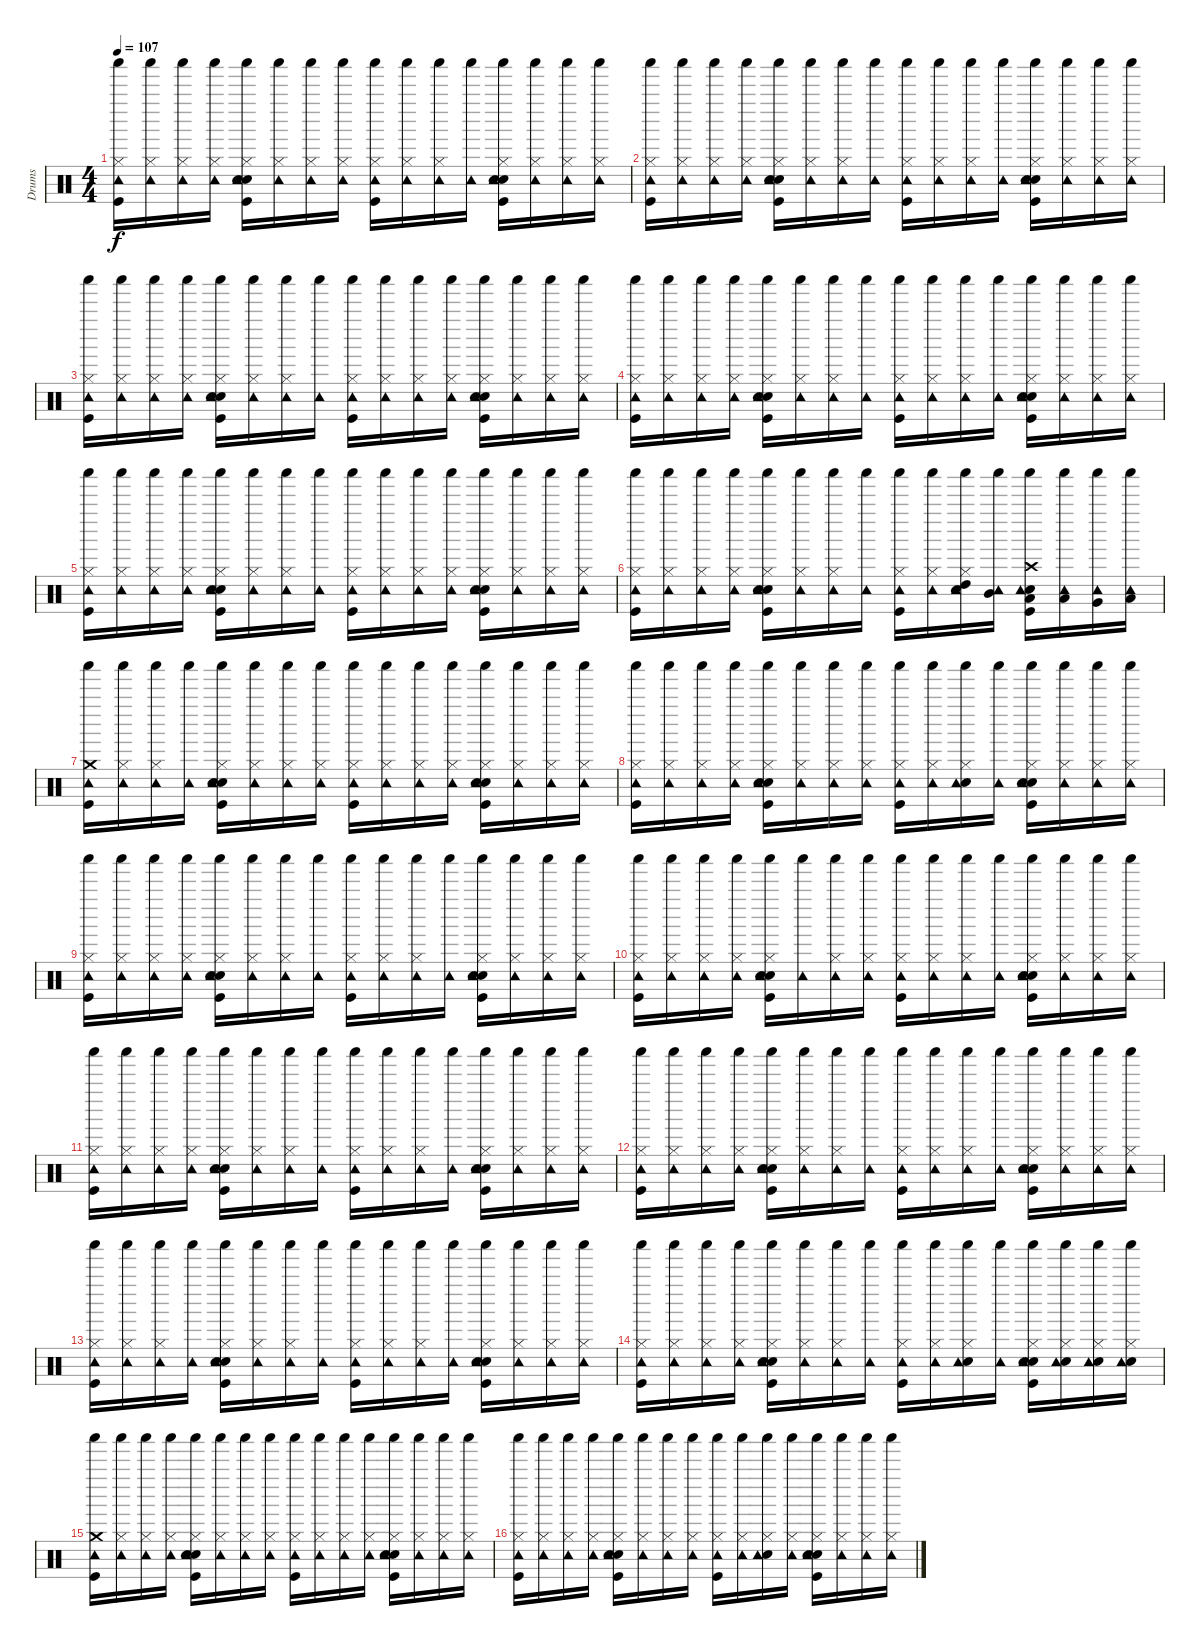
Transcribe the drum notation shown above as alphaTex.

\track ("Drums" "Drums") {instrument percussion}
\staff {score}
\articulation defaults
\ts (4 4)
\tempo 107
\clef neutral
\ks c
("Kick (hit)" "Hi-Hat (closed)" "Tambourine (hit)" "Shaker (hit)").16{dy f} ("Hi-Hat (closed)" "Tambourine (hit)" "Shaker (hit)").16 ("Hi-Hat (closed)" "Tambourine (hit)" "Shaker (hit)").16 ("Hi-Hat (closed)" "Tambourine (hit)" "Shaker (hit)").16 ("Kick (hit)" "Snare (hit) 2" "Hand Clap (hit)" "Hi-Hat (closed)" "Tambourine (hit)" "Shaker (hit)").16 ("Hi-Hat (closed)" "Tambourine (hit)" "Shaker (hit)").16 ("Hi-Hat (closed)" "Tambourine (hit)" "Shaker (hit)").16 ("Hi-Hat (closed)" "Tambourine (hit)" "Shaker (hit)").16 ("Kick (hit)" "Hi-Hat (closed)" "Tambourine (hit)" "Shaker (hit)").16 ("Hi-Hat (closed)" "Tambourine (hit)" "Shaker (hit)").16 ("Hi-Hat (closed)" "Tambourine (hit)" "Shaker (hit)").16 ("Tambourine (hit)" "Shaker (hit)").16 ("Kick (hit)" "Snare (hit) 2" "Hand Clap (hit)" "Hi-Hat (closed)" "Tambourine (hit)" "Shaker (hit)").16 ("Hi-Hat (closed)" "Tambourine (hit)" "Shaker (hit)").16 ("Hi-Hat (closed)" "Tambourine (hit)" "Shaker (hit)").16 ("Hi-Hat (closed)" "Tambourine (hit)" "Shaker (hit)").16 |
("Kick (hit)" "Hi-Hat (closed)" "Tambourine (hit)" "Shaker (hit)").16 ("Hi-Hat (closed)" "Tambourine (hit)" "Shaker (hit)").16 ("Hi-Hat (closed)" "Tambourine (hit)" "Shaker (hit)").16 ("Hi-Hat (closed)" "Tambourine (hit)" "Shaker (hit)").16 ("Kick (hit)" "Snare (hit) 2" "Hand Clap (hit)" "Hi-Hat (closed)" "Tambourine (hit)" "Shaker (hit)").16 ("Hi-Hat (closed)" "Tambourine (hit)" "Shaker (hit)").16 ("Hi-Hat (closed)" "Tambourine (hit)" "Shaker (hit)").16 ("Tambourine (hit)" "Shaker (hit)").16 ("Kick (hit)" "Hi-Hat (closed)" "Tambourine (hit)" "Shaker (hit)").16 ("Hi-Hat (closed)" "Tambourine (hit)" "Shaker (hit)").16 ("Hi-Hat (closed)" "Tambourine (hit)" "Shaker (hit)").16 ("Tambourine (hit)" "Shaker (hit)").16 ("Kick (hit)" "Snare (hit) 2" "Hand Clap (hit)" "Hi-Hat (closed)" "Tambourine (hit)" "Shaker (hit)").16 ("Hi-Hat (closed)" "Tambourine (hit)" "Shaker (hit)").16 ("Hi-Hat (closed)" "Tambourine (hit)" "Shaker (hit)").16 ("Hi-Hat (closed)" "Tambourine (hit)" "Shaker (hit)").16 |
("Kick (hit)" "Hi-Hat (closed)" "Tambourine (hit)" "Shaker (hit)").16 ("Hi-Hat (closed)" "Tambourine (hit)" "Shaker (hit)").16 ("Hi-Hat (closed)" "Tambourine (hit)" "Shaker (hit)").16 ("Hi-Hat (closed)" "Tambourine (hit)" "Shaker (hit)").16 ("Kick (hit)" "Snare (hit) 2" "Hand Clap (hit)" "Hi-Hat (closed)" "Tambourine (hit)" "Shaker (hit)").16 ("Hi-Hat (closed)" "Tambourine (hit)" "Shaker (hit)").16 ("Hi-Hat (closed)" "Tambourine (hit)" "Shaker (hit)").16 ("Tambourine (hit)" "Shaker (hit)").16 ("Kick (hit)" "Hi-Hat (closed)" "Tambourine (hit)" "Shaker (hit)").16 ("Hi-Hat (closed)" "Tambourine (hit)" "Shaker (hit)").16 ("Hi-Hat (closed)" "Tambourine (hit)" "Shaker (hit)").16 ("Hi-Hat (closed)" "Tambourine (hit)" "Shaker (hit)").16 ("Kick (hit)" "Snare (hit) 2" "Hand Clap (hit)" "Hi-Hat (closed)" "Tambourine (hit)" "Shaker (hit)").16 ("Hi-Hat (closed)" "Tambourine (hit)" "Shaker (hit)").16 ("Hi-Hat (closed)" "Tambourine (hit)" "Shaker (hit)").16 ("Hi-Hat (closed)" "Tambourine (hit)" "Shaker (hit)").16 |
("Kick (hit)" "Hi-Hat (closed)" "Tambourine (hit)" "Shaker (hit)").16 ("Hi-Hat (closed)" "Tambourine (hit)" "Shaker (hit)").16 ("Hi-Hat (closed)" "Tambourine (hit)" "Shaker (hit)").16 ("Hi-Hat (closed)" "Tambourine (hit)" "Shaker (hit)").16 ("Kick (hit)" "Snare (hit) 2" "Hand Clap (hit)" "Hi-Hat (closed)" "Tambourine (hit)" "Shaker (hit)").16 ("Hi-Hat (closed)" "Tambourine (hit)" "Shaker (hit)").16 ("Hi-Hat (closed)" "Tambourine (hit)" "Shaker (hit)").16 ("Tambourine (hit)" "Shaker (hit)").16 ("Kick (hit)" "Hi-Hat (closed)" "Tambourine (hit)" "Shaker (hit)").16 ("Hi-Hat (closed)" "Tambourine (hit)" "Shaker (hit)").16 ("Hi-Hat (closed)" "Tambourine (hit)" "Shaker (hit)").16 ("Tambourine (hit)" "Shaker (hit)").16 ("Kick (hit)" "Snare (hit) 2" "Hand Clap (hit)" "Hi-Hat (closed)" "Tambourine (hit)" "Shaker (hit)").16 ("Hi-Hat (closed)" "Tambourine (hit)" "Shaker (hit)").16 ("Hi-Hat (closed)" "Tambourine (hit)" "Shaker (hit)").16 ("Hi-Hat (closed)" "Tambourine (hit)" "Shaker (hit)").16 |
("Kick (hit)" "Hi-Hat (closed)" "Tambourine (hit)" "Shaker (hit)").16 ("Hi-Hat (closed)" "Tambourine (hit)" "Shaker (hit)").16 ("Hi-Hat (closed)" "Tambourine (hit)" "Shaker (hit)").16 ("Hi-Hat (closed)" "Tambourine (hit)" "Shaker (hit)").16 ("Kick (hit)" "Snare (hit) 2" "Hand Clap (hit)" "Hi-Hat (closed)" "Tambourine (hit)" "Shaker (hit)").16 ("Hi-Hat (closed)" "Tambourine (hit)" "Shaker (hit)").16 ("Hi-Hat (closed)" "Tambourine (hit)" "Shaker (hit)").16 ("Tambourine (hit)" "Shaker (hit)").16 ("Kick (hit)" "Hi-Hat (closed)" "Tambourine (hit)" "Shaker (hit)").16 ("Hi-Hat (closed)" "Tambourine (hit)" "Shaker (hit)").16 ("Hi-Hat (closed)" "Tambourine (hit)" "Shaker (hit)").16 ("Hi-Hat (closed)" "Tambourine (hit)" "Shaker (hit)").16 ("Kick (hit)" "Snare (hit) 2" "Hand Clap (hit)" "Hi-Hat (closed)" "Tambourine (hit)" "Shaker (hit)").16 ("Hi-Hat (closed)" "Tambourine (hit)" "Shaker (hit)").16 ("Hi-Hat (closed)" "Tambourine (hit)" "Shaker (hit)").16 ("Hi-Hat (closed)" "Tambourine (hit)" "Shaker (hit)").16 |
("Kick (hit)" "Hi-Hat (closed)" "Tambourine (hit)" "Shaker (hit)").16 ("Hi-Hat (closed)" "Tambourine (hit)" "Shaker (hit)").16 ("Hi-Hat (closed)" "Tambourine (hit)" "Shaker (hit)").16 ("Hi-Hat (closed)" "Tambourine (hit)" "Shaker (hit)").16 ("Kick (hit)" "Snare (hit) 2" "Hand Clap (hit)" "Hi-Hat (closed)" "Tambourine (hit)" "Shaker (hit)").16 ("Hi-Hat (closed)" "Tambourine (hit)" "Shaker (hit)").16 ("Hi-Hat (closed)" "Tambourine (hit)" "Shaker (hit)").16 ("Tambourine (hit)" "Shaker (hit)").16 ("Kick (hit)" "Hi-Hat (closed)" "Tambourine (hit)" "Shaker (hit)").16 ("Hi-Hat (closed)" "Tambourine (hit)" "Shaker (hit)").16 ("Hand Clap (hit)" "Hi-Hat (closed)" "High Tom (hit)" "Tambourine (hit)" "Shaker (hit)").16 ("Mid Tom (hit)" "Tambourine (hit)" "Shaker (hit)").16 ("Kick (hit)" "Hand Clap (hit)" "Low Tom (hit)" "Crash high (hit)" "Tambourine (hit)" "Shaker (hit)").16 ("Low Tom (hit)" "Tambourine (hit)" "Shaker (hit)").16 ("Very Low Tom (hit)" "Tambourine (hit)" "Shaker (hit)").16 ("Low Floor Tom (hit)" "Tambourine (hit)" "Shaker (hit)").16 |
("Kick (hit)" "Tambourine (hit)" "Crash medium (hit)" "Shaker (hit)").16 ("Hi-Hat (closed)" "Tambourine (hit)" "Shaker (hit)").16 ("Hi-Hat (closed)" "Tambourine (hit)" "Shaker (hit)").16 ("Tambourine (hit)" "Shaker (hit)").16 ("Kick (hit)" "Snare (hit) 2" "Hand Clap (hit)" "Hi-Hat (closed)" "Tambourine (hit)" "Shaker (hit)").16 ("Hi-Hat (closed)" "Tambourine (hit)" "Shaker (hit)").16 ("Hi-Hat (closed)" "Tambourine (hit)" "Shaker (hit)").16 ("Hi-Hat (closed)" "Tambourine (hit)" "Shaker (hit)").16 ("Kick (hit)" "Hi-Hat (closed)" "Tambourine (hit)" "Shaker (hit)").16 ("Hi-Hat (closed)" "Tambourine (hit)" "Shaker (hit)").16 ("Hi-Hat (closed)" "Tambourine (hit)" "Shaker (hit)").16 ("Hi-Hat (closed)" "Tambourine (hit)" "Shaker (hit)").16 ("Kick (hit)" "Snare (hit) 2" "Hand Clap (hit)" "Hi-Hat (closed)" "Tambourine (hit)" "Shaker (hit)").16 ("Hi-Hat (closed)" "Tambourine (hit)" "Shaker (hit)").16 ("Hi-Hat (closed)" "Tambourine (hit)" "Shaker (hit)").16 ("Hi-Hat (closed)" "Tambourine (hit)" "Shaker (hit)").16 |
("Kick (hit)" "Hi-Hat (closed)" "Tambourine (hit)" "Shaker (hit)").16 ("Hi-Hat (closed)" "Tambourine (hit)" "Shaker (hit)").16 ("Hi-Hat (closed)" "Tambourine (hit)" "Shaker (hit)").16 ("Hi-Hat (closed)" "Tambourine (hit)" "Shaker (hit)").16 ("Kick (hit)" "Snare (hit) 2" "Hand Clap (hit)" "Hi-Hat (closed)" "Tambourine (hit)" "Shaker (hit)").16 ("Hi-Hat (closed)" "Tambourine (hit)" "Shaker (hit)").16 ("Hi-Hat (closed)" "Tambourine (hit)" "Shaker (hit)").16 ("Hi-Hat (closed)" "Tambourine (hit)" "Shaker (hit)").16 ("Kick (hit)" "Hi-Hat (closed)" "Tambourine (hit)" "Shaker (hit)").16 ("Hi-Hat (closed)" "Tambourine (hit)" "Shaker (hit)").16 ("Hand Clap (hit)" "Hi-Hat (closed)" "Tambourine (hit)" "Shaker (hit)").16 ("Tambourine (hit)" "Shaker (hit)").16 ("Kick (hit)" "Snare (hit) 2" "Hand Clap (hit)" "Hi-Hat (closed)" "Tambourine (hit)" "Shaker (hit)").16 ("Hi-Hat (closed)" "Tambourine (hit)" "Shaker (hit)").16 ("Hi-Hat (closed)" "Tambourine (hit)" "Shaker (hit)").16 ("Hi-Hat (closed)" "Tambourine (hit)" "Shaker (hit)").16 |
("Kick (hit)" "Hi-Hat (closed)" "Tambourine (hit)" "Shaker (hit)").16 ("Hi-Hat (closed)" "Tambourine (hit)" "Shaker (hit)").16 ("Hi-Hat (closed)" "Tambourine (hit)" "Shaker (hit)").16 ("Hi-Hat (closed)" "Tambourine (hit)" "Shaker (hit)").16 ("Kick (hit)" "Snare (hit) 2" "Hand Clap (hit)" "Hi-Hat (closed)" "Tambourine (hit)" "Shaker (hit)").16 ("Hi-Hat (closed)" "Tambourine (hit)" "Shaker (hit)").16 ("Hi-Hat (closed)" "Tambourine (hit)" "Shaker (hit)").16 ("Tambourine (hit)" "Shaker (hit)").16 ("Kick (hit)" "Hi-Hat (closed)" "Tambourine (hit)" "Shaker (hit)").16 ("Hi-Hat (closed)" "Tambourine (hit)" "Shaker (hit)").16 ("Hi-Hat (closed)" "Tambourine (hit)" "Shaker (hit)").16 ("Tambourine (hit)" "Shaker (hit)").16 ("Kick (hit)" "Snare (hit) 2" "Hand Clap (hit)" "Hi-Hat (closed)" "Tambourine (hit)" "Shaker (hit)").16 ("Hi-Hat (closed)" "Tambourine (hit)" "Shaker (hit)").16 ("Hi-Hat (closed)" "Tambourine (hit)" "Shaker (hit)").16 ("Hi-Hat (closed)" "Tambourine (hit)" "Shaker (hit)").16 |
("Kick (hit)" "Hi-Hat (closed)" "Tambourine (hit)" "Shaker (hit)").16 ("Hi-Hat (closed)" "Tambourine (hit)" "Shaker (hit)").16 ("Hi-Hat (closed)" "Tambourine (hit)" "Shaker (hit)").16 ("Hi-Hat (closed)" "Tambourine (hit)" "Shaker (hit)").16 ("Kick (hit)" "Snare (hit) 2" "Hand Clap (hit)" "Hi-Hat (closed)" "Tambourine (hit)" "Shaker (hit)").16 ("Tambourine (hit)" "Shaker (hit)").16 ("Hi-Hat (closed)" "Tambourine (hit)" "Shaker (hit)").16 ("Hi-Hat (closed)" "Tambourine (hit)" "Shaker (hit)").16 ("Kick (hit)" "Hi-Hat (closed)" "Tambourine (hit)" "Shaker (hit)").16 ("Hi-Hat (closed)" "Tambourine (hit)" "Shaker (hit)").16 ("Hi-Hat (closed)" "Tambourine (hit)" "Shaker (hit)").16 ("Tambourine (hit)" "Shaker (hit)").16 ("Kick (hit)" "Snare (hit) 2" "Hand Clap (hit)" "Hi-Hat (closed)" "Tambourine (hit)" "Shaker (hit)").16 ("Hi-Hat (closed)" "Tambourine (hit)" "Shaker (hit)").16 ("Hi-Hat (closed)" "Tambourine (hit)" "Shaker (hit)").16 ("Hi-Hat (closed)" "Tambourine (hit)" "Shaker (hit)").16 |
("Kick (hit)" "Hi-Hat (closed)" "Tambourine (hit)" "Shaker (hit)").16 ("Hi-Hat (closed)" "Tambourine (hit)" "Shaker (hit)").16 ("Hi-Hat (closed)" "Tambourine (hit)" "Shaker (hit)").16 ("Hi-Hat (closed)" "Tambourine (hit)" "Shaker (hit)").16 ("Kick (hit)" "Snare (hit) 2" "Hand Clap (hit)" "Hi-Hat (closed)" "Tambourine (hit)" "Shaker (hit)").16 ("Hi-Hat (closed)" "Tambourine (hit)" "Shaker (hit)").16 ("Hi-Hat (closed)" "Tambourine (hit)" "Shaker (hit)").16 ("Tambourine (hit)" "Shaker (hit)").16 ("Kick (hit)" "Hi-Hat (closed)" "Tambourine (hit)" "Shaker (hit)").16 ("Hi-Hat (closed)" "Tambourine (hit)" "Shaker (hit)").16 ("Hi-Hat (closed)" "Tambourine (hit)" "Shaker (hit)").16 ("Tambourine (hit)" "Shaker (hit)").16 ("Kick (hit)" "Snare (hit) 2" "Hand Clap (hit)" "Hi-Hat (closed)" "Tambourine (hit)" "Shaker (hit)").16 ("Hi-Hat (closed)" "Tambourine (hit)" "Shaker (hit)").16 ("Hi-Hat (closed)" "Tambourine (hit)" "Shaker (hit)").16 ("Hi-Hat (closed)" "Tambourine (hit)" "Shaker (hit)").16 |
("Kick (hit)" "Hi-Hat (closed)" "Tambourine (hit)" "Shaker (hit)").16 ("Hi-Hat (closed)" "Tambourine (hit)" "Shaker (hit)").16 ("Hi-Hat (closed)" "Tambourine (hit)" "Shaker (hit)").16 ("Hi-Hat (closed)" "Tambourine (hit)" "Shaker (hit)").16 ("Kick (hit)" "Snare (hit) 2" "Hand Clap (hit)" "Hi-Hat (closed)" "Tambourine (hit)" "Shaker (hit)").16 ("Hi-Hat (closed)" "Tambourine (hit)" "Shaker (hit)").16 ("Hi-Hat (closed)" "Tambourine (hit)" "Shaker (hit)").16 ("Tambourine (hit)" "Shaker (hit)").16 ("Kick (hit)" "Hi-Hat (closed)" "Tambourine (hit)" "Shaker (hit)").16 ("Hi-Hat (closed)" "Tambourine (hit)" "Shaker (hit)").16 ("Hi-Hat (closed)" "Tambourine (hit)" "Shaker (hit)").16 ("Tambourine (hit)" "Shaker (hit)").16 ("Kick (hit)" "Snare (hit) 2" "Hand Clap (hit)" "Hi-Hat (closed)" "Tambourine (hit)" "Shaker (hit)").16 ("Hi-Hat (closed)" "Tambourine (hit)" "Shaker (hit)").16 ("Hi-Hat (closed)" "Tambourine (hit)" "Shaker (hit)").16 ("Hi-Hat (closed)" "Tambourine (hit)" "Shaker (hit)").16 |
("Kick (hit)" "Hi-Hat (closed)" "Tambourine (hit)" "Shaker (hit)").16 ("Hi-Hat (closed)" "Tambourine (hit)" "Shaker (hit)").16 ("Hi-Hat (closed)" "Tambourine (hit)" "Shaker (hit)").16 ("Tambourine (hit)" "Shaker (hit)").16 ("Kick (hit)" "Snare (hit) 2" "Hand Clap (hit)" "Hi-Hat (closed)" "Tambourine (hit)" "Shaker (hit)").16 ("Hi-Hat (closed)" "Tambourine (hit)" "Shaker (hit)").16 ("Hi-Hat (closed)" "Tambourine (hit)" "Shaker (hit)").16 ("Tambourine (hit)" "Shaker (hit)").16 ("Kick (hit)" "Hi-Hat (closed)" "Tambourine (hit)" "Shaker (hit)").16 ("Hi-Hat (closed)" "Tambourine (hit)" "Shaker (hit)").16 ("Hi-Hat (closed)" "Tambourine (hit)" "Shaker (hit)").16 ("Tambourine (hit)" "Shaker (hit)").16 ("Kick (hit)" "Snare (hit) 2" "Hand Clap (hit)" "Hi-Hat (closed)" "Tambourine (hit)" "Shaker (hit)").16 ("Hi-Hat (closed)" "Tambourine (hit)" "Shaker (hit)").16 ("Hi-Hat (closed)" "Tambourine (hit)" "Shaker (hit)").16 ("Hi-Hat (closed)" "Tambourine (hit)" "Shaker (hit)").16 |
("Kick (hit)" "Hi-Hat (closed)" "Tambourine (hit)" "Shaker (hit)").16 ("Hi-Hat (closed)" "Tambourine (hit)" "Shaker (hit)").16 ("Hi-Hat (closed)" "Tambourine (hit)" "Shaker (hit)").16 ("Hi-Hat (closed)" "Tambourine (hit)" "Shaker (hit)").16 ("Kick (hit)" "Snare (hit) 2" "Hand Clap (hit)" "Hi-Hat (closed)" "Tambourine (hit)" "Shaker (hit)").16 ("Hi-Hat (closed)" "Tambourine (hit)" "Shaker (hit)").16 ("Hi-Hat (closed)" "Tambourine (hit)" "Shaker (hit)").16 ("Tambourine (hit)" "Shaker (hit)").16 ("Kick (hit)" "Hi-Hat (closed)" "Tambourine (hit)" "Shaker (hit)").16 ("Hi-Hat (closed)" "Tambourine (hit)" "Shaker (hit)").16 ("Hand Clap (hit)" "Hi-Hat (closed)" "Tambourine (hit)" "Shaker (hit)").16 ("Tambourine (hit)" "Shaker (hit)").16 ("Kick (hit)" "Snare (hit) 2" "Hand Clap (hit)" "Hi-Hat (closed)" "Tambourine (hit)" "Shaker (hit)").16 ("Snare (hit) 2" "Hi-Hat (closed)" "Tambourine (hit)" "Shaker (hit)").16 ("Snare (hit) 2" "Hi-Hat (closed)" "Tambourine (hit)" "Shaker (hit)").16 ("Snare (hit) 2" "Hi-Hat (closed)" "Tambourine (hit)" "Shaker (hit)").16 |
("Kick (hit)" "Tambourine (hit)" "Crash medium (hit)" "Shaker (hit)").16 ("Hi-Hat (closed)" "Tambourine (hit)" "Shaker (hit)").16 ("Hi-Hat (closed)" "Tambourine (hit)" "Shaker (hit)").16 ("Hi-Hat (closed)" "Tambourine (hit)" "Shaker (hit)").16 ("Kick (hit)" "Snare (hit) 2" "Hand Clap (hit)" "Hi-Hat (closed)" "Tambourine (hit)" "Shaker (hit)").16 ("Hi-Hat (closed)" "Tambourine (hit)" "Shaker (hit)").16 ("Hi-Hat (closed)" "Tambourine (hit)" "Shaker (hit)").16 ("Hi-Hat (closed)" "Tambourine (hit)" "Shaker (hit)").16 ("Kick (hit)" "Hi-Hat (closed)" "Tambourine (hit)" "Shaker (hit)").16 ("Hi-Hat (closed)" "Tambourine (hit)" "Shaker (hit)").16 ("Hi-Hat (closed)" "Tambourine (hit)" "Shaker (hit)").16 ("Hi-Hat (closed)" "Tambourine (hit)" "Shaker (hit)").16 ("Kick (hit)" "Snare (hit) 2" "Hand Clap (hit)" "Hi-Hat (closed)" "Tambourine (hit)" "Shaker (hit)").16 ("Hi-Hat (closed)" "Tambourine (hit)" "Shaker (hit)").16 ("Hi-Hat (closed)" "Tambourine (hit)" "Shaker (hit)").16 ("Hi-Hat (closed)" "Tambourine (hit)" "Shaker (hit)").16 |
("Kick (hit)" "Hi-Hat (closed)" "Tambourine (hit)" "Shaker (hit)").16 ("Hi-Hat (closed)" "Tambourine (hit)" "Shaker (hit)").16 ("Hi-Hat (closed)" "Tambourine (hit)" "Shaker (hit)").16 ("Hi-Hat (closed)" "Tambourine (hit)" "Shaker (hit)").16 ("Kick (hit)" "Snare (hit) 2" "Hand Clap (hit)" "Hi-Hat (closed)" "Tambourine (hit)" "Shaker (hit)").16 ("Hi-Hat (closed)" "Tambourine (hit)" "Shaker (hit)").16 ("Hi-Hat (closed)" "Tambourine (hit)" "Shaker (hit)").16 ("Hi-Hat (closed)" "Tambourine (hit)" "Shaker (hit)").16 ("Kick (hit)" "Hi-Hat (closed)" "Tambourine (hit)" "Shaker (hit)").16 ("Hi-Hat (closed)" "Tambourine (hit)" "Shaker (hit)").16 ("Hand Clap (hit)" "Hi-Hat (closed)" "Tambourine (hit)" "Shaker (hit)").16 ("Hi-Hat (closed)" "Tambourine (hit)" "Shaker (hit)").16 ("Kick (hit)" "Snare (hit) 2" "Hand Clap (hit)" "Hi-Hat (closed)" "Tambourine (hit)" "Shaker (hit)").16 ("Hi-Hat (closed)" "Tambourine (hit)" "Shaker (hit)").16 ("Hi-Hat (closed)" "Tambourine (hit)" "Shaker (hit)").16 ("Hi-Hat (closed)" "Tambourine (hit)" "Shaker (hit)").16
